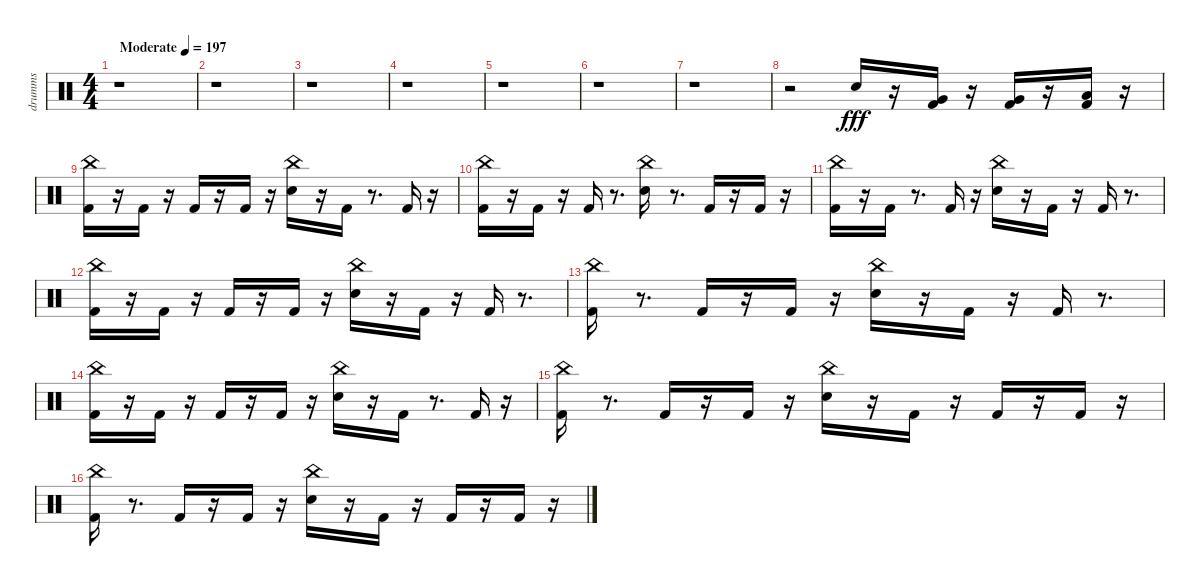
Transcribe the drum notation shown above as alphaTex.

\track ("drumms" "drumms") {instrument percussion}
\staff {score}
\articulation defaults
\ts (4 4)
\tempo (197 "Moderate")
\clef neutral
\ks c
r.1{dy fff} |
r.1 |
r.1 |
r.1 |
r.1 |
r.1 |
r.1 |
r.2 "Snare (hit) 2".16 r.16 ("Kick (hit) 2" "Very Low Tom (hit)").16 r.16 ("Kick (hit) 2" "Very Low Tom (hit)").16 r.16 ("Kick (hit) 2" "Low Floor Tom (hit)").16 r.16 |
("Kick (hit) 2" "China (hit)").16 r.16 "Kick (hit) 2".16 r.16 "Kick (hit) 2".16 r.16 "Kick (hit) 2".16 r.16 ("Snare (hit) 2" "China (hit)").16{volume 12} r.16 "Kick (hit) 2".16{volume 12} r.8{d} "Kick (hit) 2".16 r.16 |
("China (hit)" "Kick (hit) 2").16 r.16 "Kick (hit) 2".16{volume 12} r.16 "Kick (hit) 2".16 r.8{d} ("Snare (hit) 2" "China (hit)").16{volume 12} r.8{d} "Kick (hit) 2".16{volume 12} r.16 "Kick (hit) 2".16 r.16 |
("Kick (hit) 2" "China (hit)").16{volume 12} r.16 "Kick (hit) 2".16{volume 12} r.8{d} "Kick (hit) 2".16 r.16 ("Snare (hit) 2" "China (hit)").16 r.16 "Kick (hit) 2".16 r.16 "Kick (hit) 2".16 r.8{d} |
("Kick (hit) 2" "China (hit)").16 r.16 "Kick (hit) 2".16 r.16 "Kick (hit) 2".16 r.16 "Kick (hit) 2".16 r.16 ("Snare (hit) 2" "China (hit)").16 r.16 "Kick (hit) 2".16 r.16 "Kick (hit) 2".16{volume 12} r.8{d} |
("Kick (hit) 2" "China (hit)").16{volume 12} r.8{d} "Kick (hit) 2".16{volume 12} r.16 "Kick (hit) 2".16{volume 12} r.16 ("Snare (hit) 2" "China (hit)").16{volume 12} r.16 "Kick (hit) 2".16 r.16 "Kick (hit) 2".16 r.8{d} |
("Kick (hit) 2" "China (hit)").16 r.16 "Kick (hit) 2".16 r.16 "Kick (hit) 2".16 r.16 "Kick (hit) 2".16{volume 12} r.16 ("Snare (hit) 2" "China (hit)").16{volume 12} r.16 "Kick (hit) 2".16 r.8{d} "Kick (hit) 2".16{volume 12} r.16 |
("Kick (hit) 2" "China (hit)").16{volume 12} r.8{d} "Kick (hit) 2".16{volume 12} r.16 "Kick (hit) 2".16 r.16 ("Snare (hit) 2" "China (hit)").16{volume 12} r.16 "Kick (hit) 2".16{volume 12} r.16 "Kick (hit) 2".16 r.16 "Kick (hit) 2".16 r.16 |
("Kick (hit) 2" "China (hit)").16 r.8{d} "Kick (hit) 2".16{volume 12} r.16 "Kick (hit) 2".16 r.16 ("Snare (hit) 2" "China (hit)").16{volume 12} r.16 "Kick (hit) 2".16 r.16 "Kick (hit) 2".16{volume 12} r.16 "Kick (hit) 2".16 r.16
